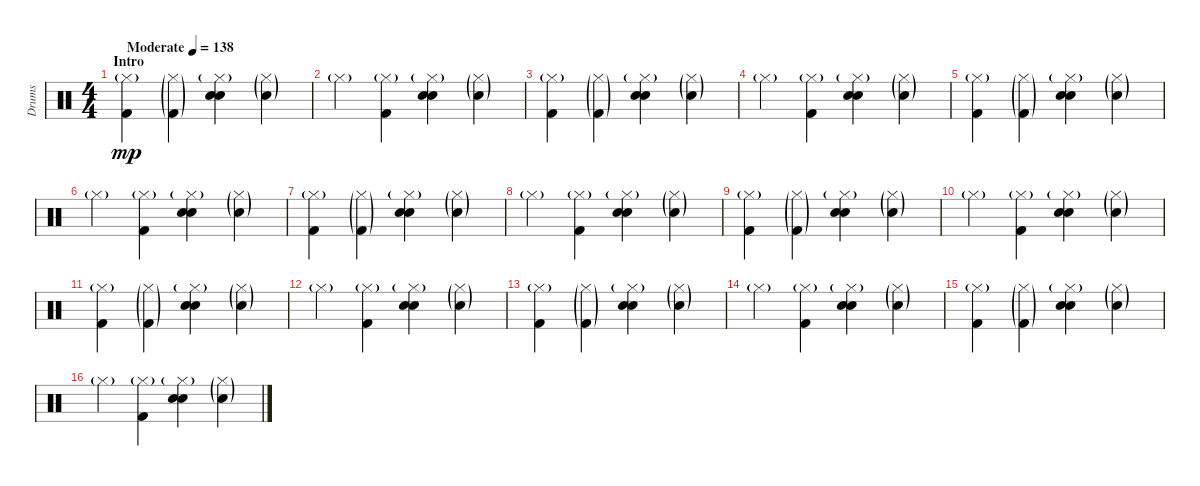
\track ("Drums" "Drums") {instrument percussion}
\staff {score}
\articulation defaults
\ts (4 4)
\section ("" "Intro")
\tempo (138 "Moderate")
\clef neutral
\ks c
("Hi-Hat (closed)"{g} "Kick (hit) 2").4{dy mp volume 7} ("Hi-Hat (closed)"{g} "Kick (hit) 2"{g}).4 ("Hi-Hat (closed)"{g} "Hand Clap (hit)" "Electric Snare (hit)").4{volume 6} ("Hi-Hat (closed)"{g} "Electric Snare (hit)"{g}).4 |
"Hi-Hat (closed)"{g}.4 ("Hi-Hat (closed)"{g} "Kick (hit) 2").4{volume 7} ("Hi-Hat (closed)"{g} "Hand Clap (hit)" "Electric Snare (hit)").4{volume 6} ("Hi-Hat (closed)"{g} "Electric Snare (hit)"{g}).4 |
("Hi-Hat (closed)"{g} "Kick (hit) 2").4{volume 7} ("Hi-Hat (closed)"{g} "Kick (hit) 2"{g}).4 ("Hi-Hat (closed)"{g} "Hand Clap (hit)" "Electric Snare (hit)").4{volume 6} ("Hi-Hat (closed)"{g} "Electric Snare (hit)"{g}).4 |
"Hi-Hat (closed)"{g}.4 ("Hi-Hat (closed)"{g} "Kick (hit) 2").4{volume 7} ("Hi-Hat (closed)"{g} "Hand Clap (hit)" "Electric Snare (hit)").4{volume 6} ("Hi-Hat (closed)"{g} "Electric Snare (hit)"{g}).4 |
("Hi-Hat (closed)"{g} "Kick (hit) 2").4{volume 7} ("Hi-Hat (closed)"{g} "Kick (hit) 2"{g}).4 ("Hi-Hat (closed)"{g} "Hand Clap (hit)" "Electric Snare (hit)").4{volume 6} ("Hi-Hat (closed)"{g} "Electric Snare (hit)"{g}).4 |
"Hi-Hat (closed)"{g}.4 ("Hi-Hat (closed)"{g} "Kick (hit) 2").4{volume 7} ("Hi-Hat (closed)"{g} "Hand Clap (hit)" "Electric Snare (hit)").4{volume 6} ("Hi-Hat (closed)"{g} "Electric Snare (hit)"{g}).4 |
("Hi-Hat (closed)"{g} "Kick (hit) 2").4{volume 7} ("Hi-Hat (closed)"{g} "Kick (hit) 2"{g}).4 ("Hi-Hat (closed)"{g} "Hand Clap (hit)" "Electric Snare (hit)").4{volume 6} ("Hi-Hat (closed)"{g} "Electric Snare (hit)"{g}).4 |
"Hi-Hat (closed)"{g}.4 ("Hi-Hat (closed)"{g} "Kick (hit) 2").4{volume 7} ("Hi-Hat (closed)"{g} "Hand Clap (hit)" "Electric Snare (hit)").4{volume 6} ("Hi-Hat (closed)"{g} "Electric Snare (hit)"{g}).4 |
("Hi-Hat (closed)"{g} "Kick (hit) 2").4{volume 7} ("Hi-Hat (closed)"{g} "Kick (hit) 2"{g}).4 ("Hi-Hat (closed)"{g} "Hand Clap (hit)" "Electric Snare (hit)").4{volume 6} ("Hi-Hat (closed)"{g} "Electric Snare (hit)"{g}).4 |
"Hi-Hat (closed)"{g}.4 ("Hi-Hat (closed)"{g} "Kick (hit) 2").4{volume 7} ("Hi-Hat (closed)"{g} "Hand Clap (hit)" "Electric Snare (hit)").4{volume 6} ("Hi-Hat (closed)"{g} "Electric Snare (hit)"{g}).4 |
("Hi-Hat (closed)"{g} "Kick (hit) 2").4{volume 7} ("Hi-Hat (closed)"{g} "Kick (hit) 2"{g}).4 ("Hi-Hat (closed)"{g} "Hand Clap (hit)" "Electric Snare (hit)").4{volume 6} ("Hi-Hat (closed)"{g} "Electric Snare (hit)"{g}).4 |
"Hi-Hat (closed)"{g}.4 ("Hi-Hat (closed)"{g} "Kick (hit) 2").4{volume 7} ("Hi-Hat (closed)"{g} "Hand Clap (hit)" "Electric Snare (hit)").4{volume 6} ("Hi-Hat (closed)"{g} "Electric Snare (hit)"{g}).4 |
("Hi-Hat (closed)"{g} "Kick (hit) 2").4{volume 7} ("Hi-Hat (closed)"{g} "Kick (hit) 2"{g}).4 ("Hi-Hat (closed)"{g} "Hand Clap (hit)" "Electric Snare (hit)").4{volume 6} ("Hi-Hat (closed)"{g} "Electric Snare (hit)"{g}).4 |
"Hi-Hat (closed)"{g}.4 ("Hi-Hat (closed)"{g} "Kick (hit) 2").4{volume 7} ("Hi-Hat (closed)"{g} "Hand Clap (hit)" "Electric Snare (hit)").4{volume 6} ("Hi-Hat (closed)"{g} "Electric Snare (hit)"{g}).4 |
("Hi-Hat (closed)"{g} "Kick (hit) 2").4{volume 7} ("Hi-Hat (closed)"{g} "Kick (hit) 2"{g}).4 ("Hi-Hat (closed)"{g} "Hand Clap (hit)" "Electric Snare (hit)").4{volume 6} ("Hi-Hat (closed)"{g} "Electric Snare (hit)"{g}).4 |
"Hi-Hat (closed)"{g}.4 ("Hi-Hat (closed)"{g} "Kick (hit) 2").4{volume 7} ("Hi-Hat (closed)"{g} "Hand Clap (hit)" "Electric Snare (hit)").4{volume 6} ("Hi-Hat (closed)"{g} "Electric Snare (hit)"{g}).4
